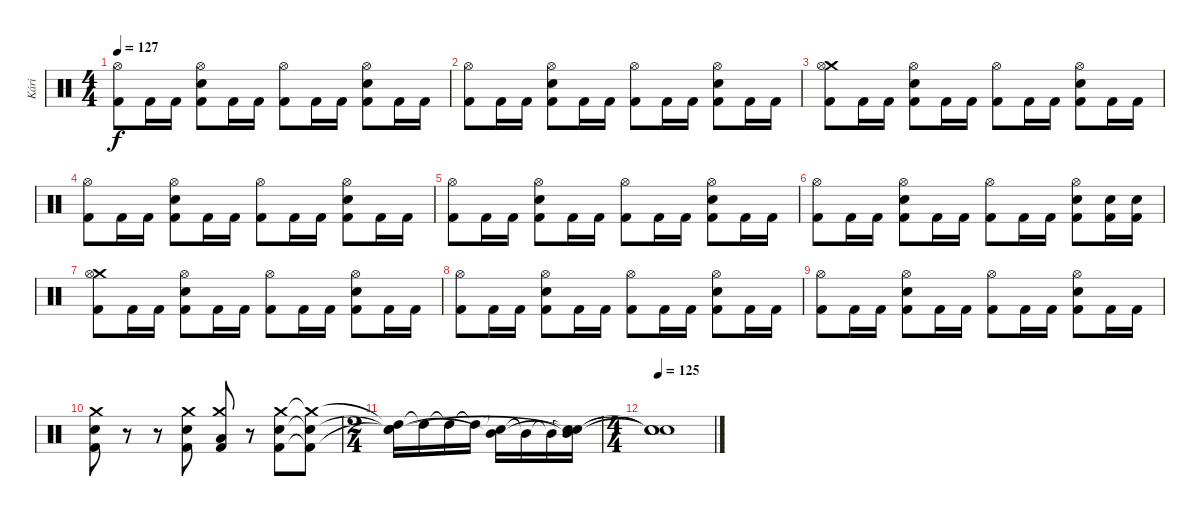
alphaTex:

\track ("Kári" "Kári") {instrument percussion}
\staff {score}
\articulation defaults
\ts (4 4)
\tempo 127
\clef neutral
\ks c
("Hi-Hat (open)" "Kick (hit) 2").8{dy f} "Kick (hit) 2".16 "Kick (hit) 2".16 ("Hi-Hat (open)" "Snare (hit) 2" "Kick (hit) 2").8 "Kick (hit) 2".16 "Kick (hit) 2".16 ("Hi-Hat (open)" "Kick (hit) 2").8 "Kick (hit) 2".16 "Kick (hit) 2".16 ("Hi-Hat (open)" "Snare (hit) 2" "Kick (hit) 2").8 "Kick (hit) 2".16 "Kick (hit) 2".16 |
("Hi-Hat (open)" "Kick (hit) 2").8 "Kick (hit) 2".16 "Kick (hit) 2".16 ("Hi-Hat (open)" "Snare (hit) 2" "Kick (hit) 2").8 "Kick (hit) 2".16 "Kick (hit) 2".16 ("Hi-Hat (open)" "Kick (hit) 2").8 "Kick (hit) 2".16 "Kick (hit) 2".16 ("Hi-Hat (open)" "Snare (hit) 2" "Kick (hit) 2").8 "Kick (hit) 2".16 "Kick (hit) 2".16 |
("Crash medium (hit)" "Hi-Hat (open)" "Kick (hit) 2").8 "Kick (hit) 2".16 "Kick (hit) 2".16 ("Hi-Hat (open)" "Snare (hit) 2" "Kick (hit) 2").8 "Kick (hit) 2".16 "Kick (hit) 2".16 ("Hi-Hat (open)" "Kick (hit) 2").8 "Kick (hit) 2".16 "Kick (hit) 2".16 ("Hi-Hat (open)" "Snare (hit) 2" "Kick (hit) 2").8 "Kick (hit) 2".16 "Kick (hit) 2".16 |
("Hi-Hat (open)" "Kick (hit) 2").8 "Kick (hit) 2".16 "Kick (hit) 2".16 ("Hi-Hat (open)" "Snare (hit) 2" "Kick (hit) 2").8 "Kick (hit) 2".16 "Kick (hit) 2".16 ("Hi-Hat (open)" "Kick (hit) 2").8 "Kick (hit) 2".16 "Kick (hit) 2".16 ("Hi-Hat (open)" "Snare (hit) 2" "Kick (hit) 2").8 "Kick (hit) 2".16 "Kick (hit) 2".16 |
("Hi-Hat (open)" "Kick (hit) 2").8 "Kick (hit) 2".16 "Kick (hit) 2".16 ("Hi-Hat (open)" "Snare (hit) 2" "Kick (hit) 2").8 "Kick (hit) 2".16 "Kick (hit) 2".16 ("Hi-Hat (open)" "Kick (hit) 2").8 "Kick (hit) 2".16 "Kick (hit) 2".16 ("Hi-Hat (open)" "Snare (hit) 2" "Kick (hit) 2").8 "Kick (hit) 2".16 "Kick (hit) 2".16 |
("Hi-Hat (open)" "Kick (hit) 2").8 "Kick (hit) 2".16 "Kick (hit) 2".16 ("Hi-Hat (open)" "Snare (hit) 2" "Kick (hit) 2").8 "Kick (hit) 2".16 "Kick (hit) 2".16 ("Hi-Hat (open)" "Kick (hit) 2").8 "Kick (hit) 2".16 "Kick (hit) 2".16 ("Hi-Hat (open)" "Snare (hit) 2" "Kick (hit) 2").8 ("Snare (hit) 2" "Kick (hit) 2").16 ("Snare (hit) 2" "Kick (hit) 2").16 |
("Crash medium (hit)" "Hi-Hat (open)" "Kick (hit) 2").8 "Kick (hit) 2".16 "Kick (hit) 2".16 ("Hi-Hat (open)" "Snare (hit) 2" "Kick (hit) 2").8 "Kick (hit) 2".16 "Kick (hit) 2".16 ("Hi-Hat (open)" "Kick (hit) 2").8 "Kick (hit) 2".16 "Kick (hit) 2".16 ("Hi-Hat (open)" "Snare (hit) 2" "Kick (hit) 2").8 "Kick (hit) 2".16 "Kick (hit) 2".16 |
("Hi-Hat (open)" "Kick (hit) 2").8 "Kick (hit) 2".16 "Kick (hit) 2".16 ("Hi-Hat (open)" "Snare (hit) 2" "Kick (hit) 2").8 "Kick (hit) 2".16 "Kick (hit) 2".16 ("Hi-Hat (open)" "Kick (hit) 2").8 "Kick (hit) 2".16 "Kick (hit) 2".16 ("Hi-Hat (open)" "Snare (hit) 2" "Kick (hit) 2").8 "Kick (hit) 2".16 "Kick (hit) 2".16 |
("Hi-Hat (open)" "Kick (hit) 2").8 "Kick (hit) 2".16 "Kick (hit) 2".16 ("Hi-Hat (open)" "Snare (hit) 2" "Kick (hit) 2").8 "Kick (hit) 2".16 "Kick (hit) 2".16 ("Hi-Hat (open)" "Kick (hit) 2").8 "Kick (hit) 2".16 "Kick (hit) 2".16 ("Hi-Hat (open)" "Snare (hit) 2" "Kick (hit) 2").8 "Kick (hit) 2".16 "Kick (hit) 2".16 |
("Crash medium (hit)" "Snare (hit) 2" "Kick (hit) 2").8 r.8 r.8 ("Crash medium (hit)" "Snare (hit) 2" "Kick (hit) 2").8 ("Crash medium (hit)" "Low Tom (hit)" "Kick (hit) 2").8 r.8 ("Crash medium (hit)" "Snare (hit) 2" "Kick (hit) 2").8 ("Crash medium (hit)"{t} "Snare (hit)"{t} "Kick (hit) 2"{t}).8 |
\ts (2 4)
("High Tom (hit)"{t} "Snare (hit)"{t} "Snare (hit)"{t}).16 "High Tom (hit)"{t}.16 "High Tom (hit)"{t}.16 "High Tom (hit)"{t}.16 ("Snare (hit)"{t} "Mid Tom (hit)"{t}).16 "Mid Tom (hit)"{t}.16 "Mid Tom (hit)"{t}.16 ("Snare (hit)"{t} "Mid Tom (hit)"{t} "Snare (hit)"{t}).16 |
\ts (4 4)
\tempo 125
("Snare (hit)"{t} "Snare (hit)"{t} "Snare (hit)"{t}).1
